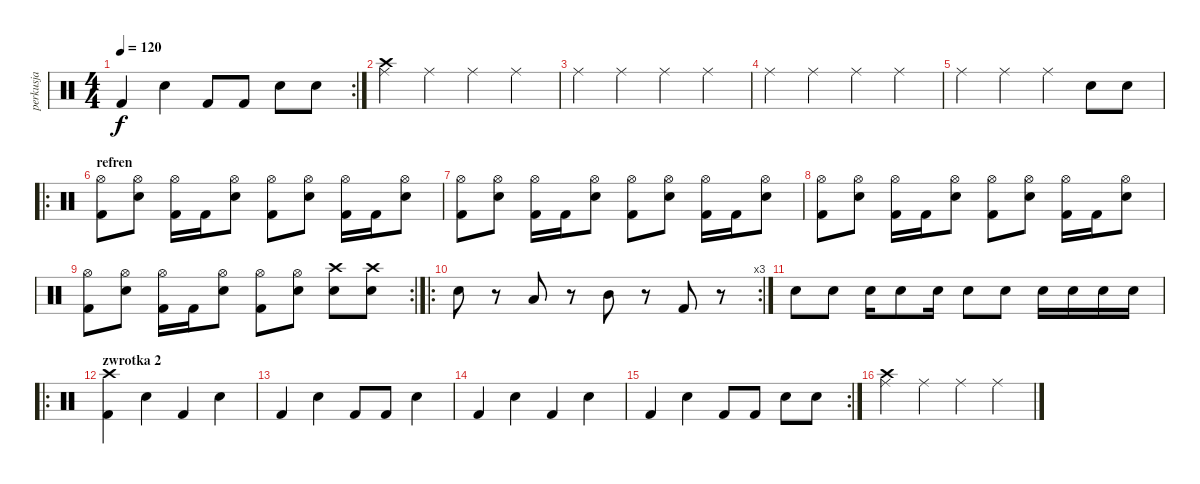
\track ("perkusja" "perkusja") {instrument percussion}
\staff {score}
\articulation defaults
\rc 2
\ts (4 4)
\tempo 120
\clef neutral
\ks c "Kick (hit) 2".4{dy f} "Electric Snare (hit)".4 "Kick (hit) 2".8 "Kick (hit) 2".8 "Electric Snare (hit)".8 "Electric Snare (hit)".8
|
("Ride (middle)" "Crash high (hit)").4 "Ride (middle)".4 "Ride (middle)".4 "Ride (middle)".4 |
"Ride (middle)".4 "Ride (middle)".4 "Ride (middle)".4 "Ride (middle)".4 |
"Ride (middle)".4 "Ride (middle)".4 "Ride (middle)".4 "Ride (middle)".4 |
"Ride (middle)".4 "Ride (middle)".4 "Ride (middle)".4 "Electric Snare (hit)".8 "Electric Snare (hit)".8 |
\ro
\section ("" "refren")
("Hi-Hat (open)" "Kick (hit) 2").8 ("Hi-Hat (open)" "Electric Snare (hit)").8 ("Hi-Hat (open)" "Kick (hit) 2").16 "Kick (hit) 2".16 ("Hi-Hat (open)" "Electric Snare (hit)").8 ("Hi-Hat (open)" "Kick (hit) 2").8 ("Hi-Hat (open)" "Electric Snare (hit)").8 ("Hi-Hat (open)" "Kick (hit) 2").16 "Kick (hit) 2".16 ("Hi-Hat (open)" "Electric Snare (hit)").8 |
("Hi-Hat (open)" "Kick (hit) 2").8 ("Hi-Hat (open)" "Electric Snare (hit)").8 ("Hi-Hat (open)" "Kick (hit) 2").16 "Kick (hit) 2".16 ("Hi-Hat (open)" "Electric Snare (hit)").8 ("Hi-Hat (open)" "Kick (hit) 2").8 ("Hi-Hat (open)" "Electric Snare (hit)").8 ("Hi-Hat (open)" "Kick (hit) 2").16 "Kick (hit) 2".16 ("Hi-Hat (open)" "Electric Snare (hit)").8 |
("Hi-Hat (open)" "Kick (hit) 2").8 ("Hi-Hat (open)" "Electric Snare (hit)").8 ("Hi-Hat (open)" "Kick (hit) 2").16 "Kick (hit) 2".16 ("Hi-Hat (open)" "Electric Snare (hit)").8 ("Hi-Hat (open)" "Kick (hit) 2").8 ("Hi-Hat (open)" "Electric Snare (hit)").8 ("Hi-Hat (open)" "Kick (hit) 2").16 "Kick (hit) 2".16 ("Hi-Hat (open)" "Electric Snare (hit)").8 |
\rc 2
("Hi-Hat (open)" "Kick (hit) 2").8 ("Hi-Hat (open)" "Electric Snare (hit)").8 ("Hi-Hat (open)" "Kick (hit) 2").16 "Kick (hit) 2".16 ("Hi-Hat (open)" "Electric Snare (hit)").8 ("Hi-Hat (open)" "Kick (hit) 2").8 ("Hi-Hat (open)" "Electric Snare (hit)").8 ("Crash high (hit)" "Electric Snare (hit)").8 ("Crash high (hit)" "Electric Snare (hit)").8 |
\ro
\rc 3 "Electric Snare (hit)".8
r.8 "Low Tom (hit)".8 r.8 "Mid Tom (hit)".8 r.8 "Kick (hit) 2".8 r.8 |
"Electric Snare (hit)".8 "Electric Snare (hit)".8 "Electric Snare (hit)".16 "Electric Snare (hit)".8 "Electric Snare (hit)".16 "Electric Snare (hit)".8 "Electric Snare (hit)".8 "Electric Snare (hit)".16 "Electric Snare (hit)".16 "Electric Snare (hit)".16 "Electric Snare (hit)".16 |
\ro
\section ("" "zwrotka 2")
("Crash high (hit)" "Kick (hit) 2").4 "Electric Snare (hit)".4 "Kick (hit) 2".4 "Electric Snare (hit)".4 |
"Kick (hit) 2".4 "Electric Snare (hit)".4 "Kick (hit) 2".8 "Kick (hit) 2".8 "Electric Snare (hit)".4 |
"Kick (hit) 2".4 "Electric Snare (hit)".4 "Kick (hit) 2".4 "Electric Snare (hit)".4 |
\rc 2 "Kick (hit) 2".4 "Electric Snare (hit)".4 "Kick (hit) 2".8 "Kick (hit) 2".8 "Electric Snare (hit)".8 "Electric Snare (hit)".8
|
("Ride (middle)" "Crash high (hit)").4 "Ride (middle)".4 "Ride (middle)".4 "Ride (middle)".4
